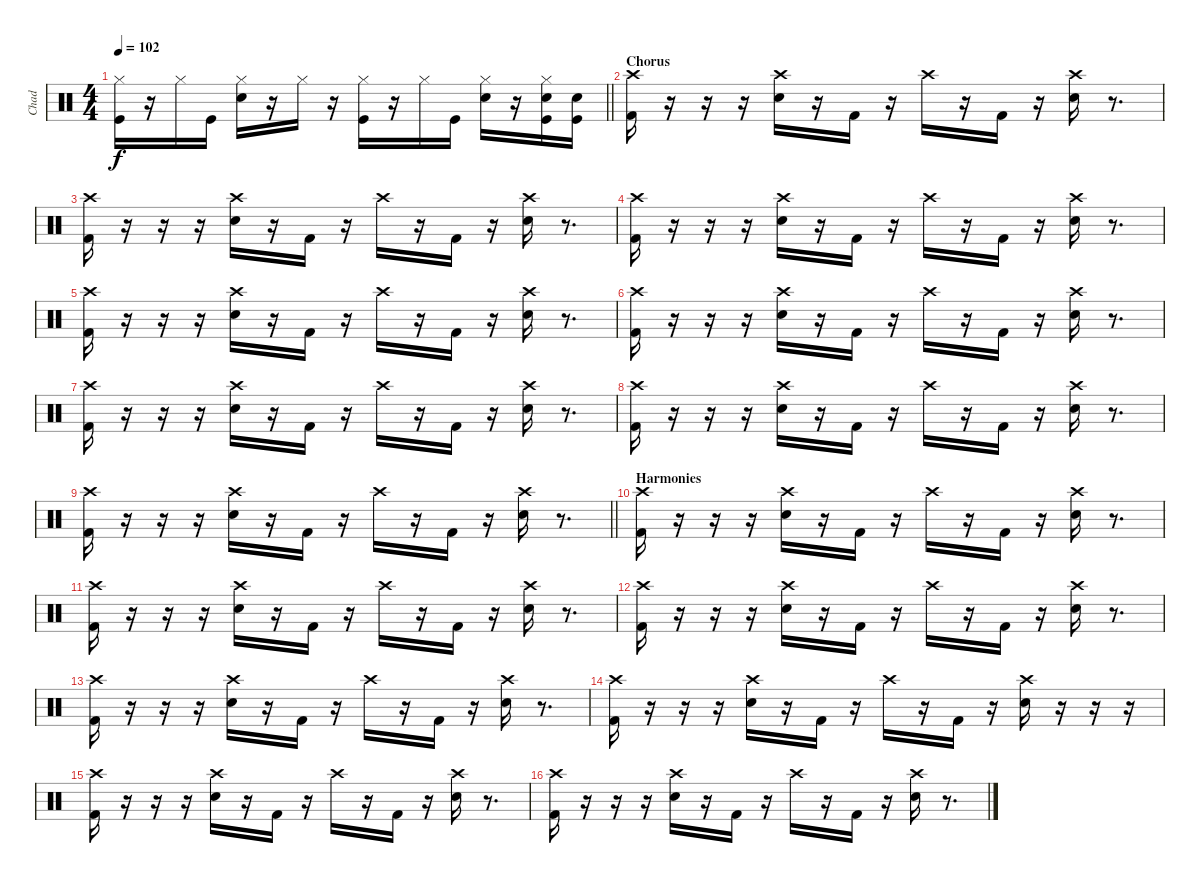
\track ("Chad" "Chad") {instrument percussion}
\staff {score}
\articulation defaults
\ts (4 4)
\tempo 102
\clef neutral
\barLineRight lightlight
\ks c
("Hi-Hat (closed)" "Kick (hit)").16{dy f} r.16 "Hi-Hat (closed)".16 "Kick (hit)".16 ("Hi-Hat (closed)" "Snare (hit) 2").16 r.16 "Hi-Hat (closed)".16 r.16 ("Hi-Hat (closed)" "Kick (hit)").16 r.16 "Hi-Hat (closed)".16 "Kick (hit)".16 ("Hi-Hat (closed)" "Snare (hit) 2").16 r.16 ("Hi-Hat (closed)" "Snare (hit) 2" "Kick (hit)").16 ("Snare (hit) 2" "Kick (hit)").16 |
\section ("" "Chorus")
("Crash high (hit)" "Kick (hit) 2").16 r.16 r.16 r.16 ("Crash high (hit)" "Electric Snare (hit)").16 r.16 "Kick (hit) 2".16 r.16 "Crash high (hit)".16 r.16 "Kick (hit) 2".16 r.16 ("Crash high (hit)" "Electric Snare (hit)").16 r.8{d} |
("Crash high (hit)" "Kick (hit) 2").16 r.16 r.16 r.16 ("Crash high (hit)" "Electric Snare (hit)").16 r.16 "Kick (hit) 2".16 r.16 "Crash high (hit)".16 r.16 "Kick (hit) 2".16 r.16 ("Crash high (hit)" "Electric Snare (hit)").16 r.8{d} |
("Crash high (hit)" "Kick (hit) 2").16 r.16 r.16 r.16 ("Crash high (hit)" "Electric Snare (hit)").16 r.16 "Kick (hit) 2".16 r.16 "Crash high (hit)".16 r.16 "Kick (hit) 2".16 r.16 ("Crash high (hit)" "Electric Snare (hit)").16 r.8{d} |
("Crash high (hit)" "Kick (hit) 2").16 r.16 r.16 r.16 ("Crash high (hit)" "Electric Snare (hit)").16 r.16 "Kick (hit) 2".16 r.16 "Crash high (hit)".16 r.16 "Kick (hit) 2".16 r.16 ("Crash high (hit)" "Electric Snare (hit)").16 r.8{d} |
("Crash high (hit)" "Kick (hit) 2").16 r.16 r.16 r.16 ("Crash high (hit)" "Electric Snare (hit)").16 r.16 "Kick (hit) 2".16 r.16 "Crash high (hit)".16 r.16 "Kick (hit) 2".16 r.16 ("Crash high (hit)" "Electric Snare (hit)").16 r.8{d} |
("Crash high (hit)" "Kick (hit) 2").16 r.16 r.16 r.16 ("Crash high (hit)" "Electric Snare (hit)").16 r.16 "Kick (hit) 2".16 r.16 "Crash high (hit)".16 r.16 "Kick (hit) 2".16 r.16 ("Crash high (hit)" "Electric Snare (hit)").16 r.8{d} |
("Crash high (hit)" "Kick (hit) 2").16 r.16 r.16 r.16 ("Crash high (hit)" "Electric Snare (hit)").16 r.16 "Kick (hit) 2".16 r.16 "Crash high (hit)".16 r.16 "Kick (hit) 2".16 r.16 ("Crash high (hit)" "Electric Snare (hit)").16 r.8{d} |
\barLineRight lightlight
("Crash high (hit)" "Kick (hit) 2").16 r.16 r.16 r.16 ("Crash high (hit)" "Electric Snare (hit)").16 r.16 "Kick (hit) 2".16 r.16 "Crash high (hit)".16 r.16 "Kick (hit) 2".16 r.16 ("Crash high (hit)" "Electric Snare (hit)").16 r.8{d} |
\section ("" "Harmonies")
("Crash high (hit)" "Kick (hit) 2").16 r.16 r.16 r.16 ("Crash high (hit)" "Electric Snare (hit)").16 r.16 "Kick (hit) 2".16 r.16 "Crash high (hit)".16 r.16 "Kick (hit) 2".16 r.16 ("Crash high (hit)" "Electric Snare (hit)").16 r.8{d} |
("Crash high (hit)" "Kick (hit) 2").16 r.16 r.16 r.16 ("Crash high (hit)" "Electric Snare (hit)").16 r.16 "Kick (hit) 2".16 r.16 "Crash high (hit)".16 r.16 "Kick (hit) 2".16 r.16 ("Crash high (hit)" "Electric Snare (hit)").16 r.8{d} |
("Crash high (hit)" "Kick (hit) 2").16 r.16 r.16 r.16 ("Crash high (hit)" "Electric Snare (hit)").16 r.16 "Kick (hit) 2".16 r.16 "Crash high (hit)".16 r.16 "Kick (hit) 2".16 r.16 ("Crash high (hit)" "Electric Snare (hit)").16 r.8{d} |
("Crash high (hit)" "Kick (hit) 2").16 r.16 r.16 r.16 ("Crash high (hit)" "Electric Snare (hit)").16 r.16 "Kick (hit) 2".16 r.16 "Crash high (hit)".16 r.16 "Kick (hit) 2".16 r.16 ("Crash high (hit)" "Electric Snare (hit)").16 r.8{d} |
("Crash high (hit)" "Kick (hit) 2").16 r.16 r.16 r.16 ("Crash high (hit)" "Electric Snare (hit)").16 r.16 "Kick (hit) 2".16 r.16 "Crash high (hit)".16 r.16 "Kick (hit) 2".16 r.16 ("Crash high (hit)" "Electric Snare (hit)").16 r.16 r.16 r.16 |
("Crash high (hit)" "Kick (hit) 2").16 r.16 r.16 r.16 ("Crash high (hit)" "Electric Snare (hit)").16 r.16 "Kick (hit) 2".16 r.16 "Crash high (hit)".16 r.16 "Kick (hit) 2".16 r.16 ("Crash high (hit)" "Electric Snare (hit)").16 r.8{d} |
("Crash high (hit)" "Kick (hit) 2").16 r.16 r.16 r.16 ("Crash high (hit)" "Electric Snare (hit)").16 r.16 "Kick (hit) 2".16 r.16 "Crash high (hit)".16 r.16 "Kick (hit) 2".16 r.16 ("Crash high (hit)" "Electric Snare (hit)").16 r.8{d}
